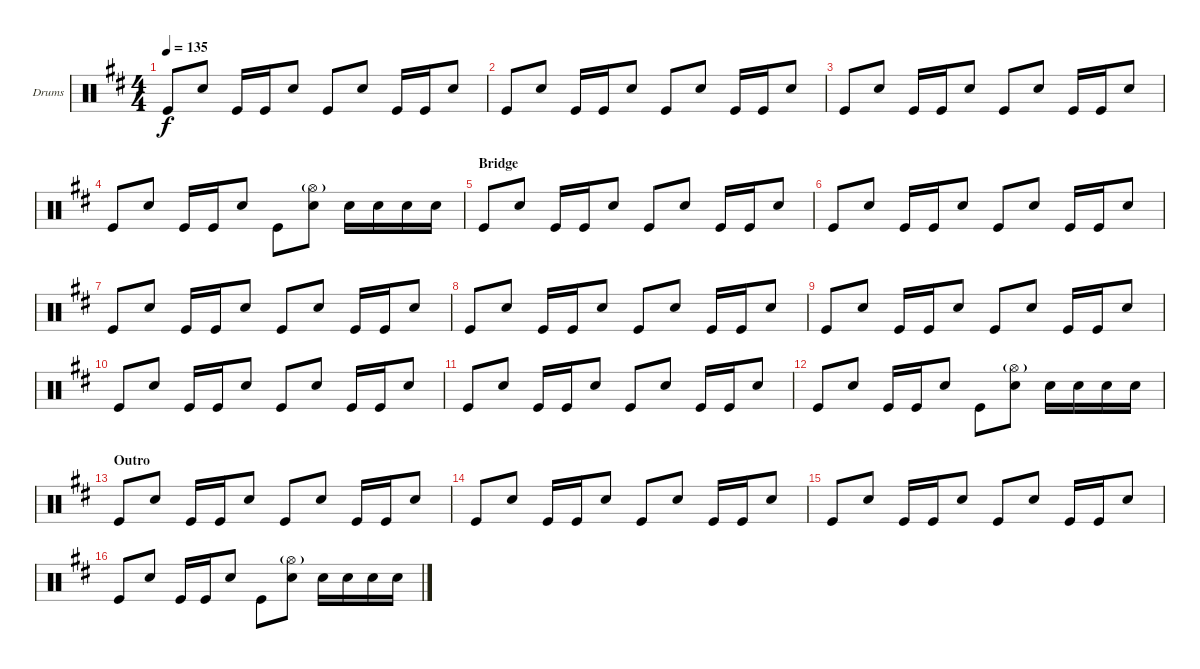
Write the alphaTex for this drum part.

\defaultSystemsLayout 4
\bracketExtendMode groupsimilarinstruments
\firstSystemTrackNameOrientation horizontal
\otherSystemsTrackNameOrientation horizontal
\track ("Drumkit" "Drums") {instrument percussion}
\staff {score}
\articulation defaults
\ts (4 4)
\tempo 135
\clef neutral
\scale
0.973518
\ks d "Kick (hit)".8{dy f} "Snare (hit) 2".8 "Kick (hit)".16 "Kick (hit)".16 "Snare (hit) 2".8 "Kick (hit)".8 "Snare (hit) 2".8 "Kick (hit)".16 "Kick (hit)".16 "Snare (hit) 2".8
|
\scale
0.973518 "Kick (hit)".8 "Snare (hit) 2".8 "Kick (hit)".16 "Kick (hit)".16 "Snare (hit) 2".8 "Kick (hit)".8 "Snare (hit) 2".8 "Kick (hit)".16 "Kick (hit)".16 "Snare (hit) 2".8 |
\scale
1.05296 "Kick (hit)".8 "Snare (hit) 2".8 "Kick (hit)".16 "Kick (hit)".16 "Snare (hit) 2".8 "Kick (hit)".8 "Snare (hit) 2".8 "Kick (hit)".16 "Kick (hit)".16 "Snare (hit) 2".8 |
\scale
0.973518 "Kick (hit)".8 "Snare (hit) 2".8 "Kick (hit)".16 "Kick (hit)".16 "Snare (hit) 2".8 "Kick (hit)".8 ("Snare (hit) 2" "Hi-Hat (open)"{g}).8 "Snare (hit) 2".16 "Snare (hit) 2".16 "Snare (hit) 2".16 "Snare (hit) 2".16 |
\section ("" "Bridge")
\scale
0.973518 "Kick (hit)".8 "Snare (hit) 2".8 "Kick (hit)".16 "Kick (hit)".16 "Snare (hit) 2".8 "Kick (hit)".8 "Snare (hit) 2".8 "Kick (hit)".16 "Kick (hit)".16 "Snare (hit) 2".8 |
\scale
1.05296 "Kick (hit)".8 "Snare (hit) 2".8 "Kick (hit)".16 "Kick (hit)".16 "Snare (hit) 2".8 "Kick (hit)".8 "Snare (hit) 2".8 "Kick (hit)".16 "Kick (hit)".16 "Snare (hit) 2".8 |
\scale
0.973518 "Kick (hit)".8 "Snare (hit) 2".8 "Kick (hit)".16 "Kick (hit)".16 "Snare (hit) 2".8 "Kick (hit)".8 "Snare (hit) 2".8 "Kick (hit)".16 "Kick (hit)".16 "Snare (hit) 2".8 |
\scale
0.973518 "Kick (hit)".8 "Snare (hit) 2".8 "Kick (hit)".16 "Kick (hit)".16 "Snare (hit) 2".8 "Kick (hit)".8 "Snare (hit) 2".8 "Kick (hit)".16 "Kick (hit)".16 "Snare (hit) 2".8 |
\scale
1.05296 "Kick (hit)".8 "Snare (hit) 2".8 "Kick (hit)".16 "Kick (hit)".16 "Snare (hit) 2".8 "Kick (hit)".8 "Snare (hit) 2".8 "Kick (hit)".16 "Kick (hit)".16 "Snare (hit) 2".8 |
\scale
0.973518 "Kick (hit)".8 "Snare (hit) 2".8 "Kick (hit)".16 "Kick (hit)".16 "Snare (hit) 2".8 "Kick (hit)".8 "Snare (hit) 2".8 "Kick (hit)".16 "Kick (hit)".16 "Snare (hit) 2".8 |
\scale
0.973518 "Kick (hit)".8 "Snare (hit) 2".8 "Kick (hit)".16 "Kick (hit)".16 "Snare (hit) 2".8 "Kick (hit)".8 "Snare (hit) 2".8 "Kick (hit)".16 "Kick (hit)".16 "Snare (hit) 2".8 |
\scale
1.05296 "Kick (hit)".8 "Snare (hit) 2".8 "Kick (hit)".16 "Kick (hit)".16 "Snare (hit) 2".8 "Kick (hit)".8 ("Snare (hit) 2" "Hi-Hat (open)"{g}).8 "Snare (hit) 2".16 "Snare (hit) 2".16 "Snare (hit) 2".16 "Snare (hit) 2".16 |
\section ("" "Outro")
\scale
0.973518 "Kick (hit)".8 "Snare (hit) 2".8 "Kick (hit)".16 "Kick (hit)".16 "Snare (hit) 2".8 "Kick (hit)".8 "Snare (hit) 2".8 "Kick (hit)".16 "Kick (hit)".16 "Snare (hit) 2".8 |
\scale
0.973518 "Kick (hit)".8 "Snare (hit) 2".8 "Kick (hit)".16 "Kick (hit)".16 "Snare (hit) 2".8 "Kick (hit)".8 "Snare (hit) 2".8 "Kick (hit)".16 "Kick (hit)".16 "Snare (hit) 2".8 |
\scale
1.05296 "Kick (hit)".8 "Snare (hit) 2".8 "Kick (hit)".16 "Kick (hit)".16 "Snare (hit) 2".8 "Kick (hit)".8 "Snare (hit) 2".8 "Kick (hit)".16 "Kick (hit)".16 "Snare (hit) 2".8 |
\scale
0.973518 "Kick (hit)".8 "Snare (hit) 2".8 "Kick (hit)".16 "Kick (hit)".16 "Snare (hit) 2".8 "Kick (hit)".8 ("Snare (hit) 2" "Hi-Hat (open)"{g}).8 "Snare (hit) 2".16 "Snare (hit) 2".16 "Snare (hit) 2".16 "Snare (hit) 2".16
